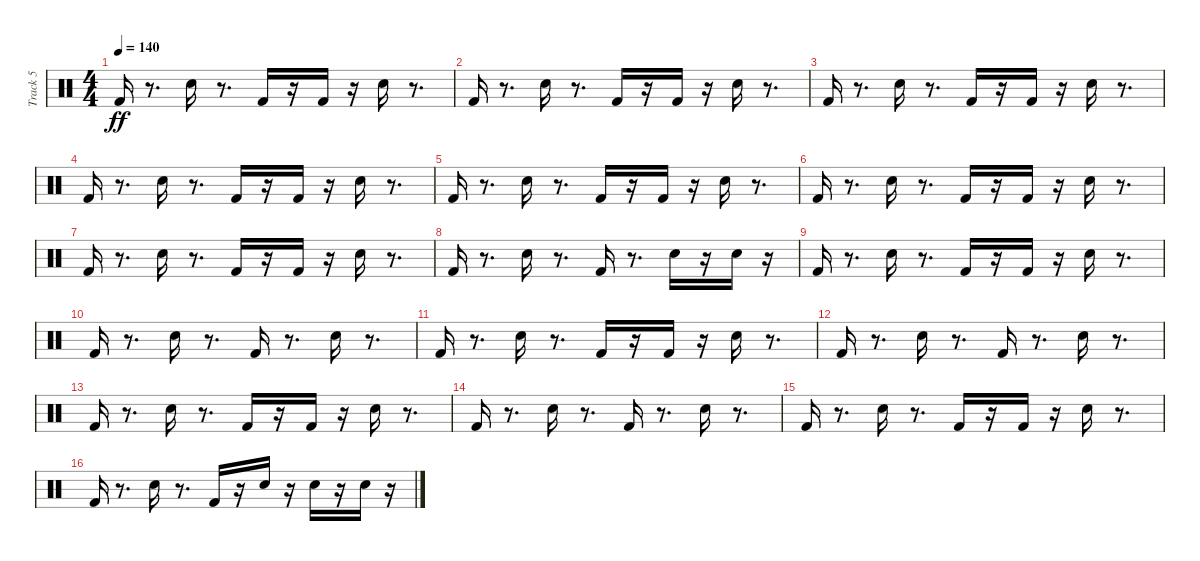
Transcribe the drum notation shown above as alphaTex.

\track ("Track 5" "Track 5") {instrument percussion}
\staff {score}
\articulation defaults
\ts (4 4)
\tempo 140
\clef neutral
\ks c "Kick (hit) 2".16{dy ff}
r.8{d} "Snare (hit) 2".16 r.8{d} "Kick (hit) 2".16 r.16 "Kick (hit) 2".16 r.16 "Snare (hit) 2".16 r.8{d} |
"Kick (hit) 2".16 r.8{d} "Snare (hit) 2".16 r.8{d} "Kick (hit) 2".16 r.16 "Kick (hit) 2".16 r.16 "Snare (hit) 2".16 r.8{d} |
"Kick (hit) 2".16 r.8{d} "Snare (hit) 2".16 r.8{d} "Kick (hit) 2".16 r.16 "Kick (hit) 2".16 r.16 "Snare (hit) 2".16 r.8{d} |
"Kick (hit) 2".16 r.8{d} "Snare (hit) 2".16 r.8{d} "Kick (hit) 2".16 r.16 "Kick (hit) 2".16 r.16 "Snare (hit) 2".16 r.8{d} |
"Kick (hit) 2".16 r.8{d} "Snare (hit) 2".16 r.8{d} "Kick (hit) 2".16 r.16 "Kick (hit) 2".16 r.16 "Snare (hit) 2".16 r.8{d} |
"Kick (hit) 2".16 r.8{d} "Snare (hit) 2".16 r.8{d} "Kick (hit) 2".16 r.16 "Kick (hit) 2".16 r.16 "Snare (hit) 2".16 r.8{d} |
"Kick (hit) 2".16 r.8{d} "Snare (hit) 2".16 r.8{d} "Kick (hit) 2".16 r.16 "Kick (hit) 2".16 r.16 "Snare (hit) 2".16 r.8{d} |
"Kick (hit) 2".16 r.8{d} "Snare (hit) 2".16 r.8{d} "Kick (hit) 2".16 r.8{d} "Snare (hit) 2".16 r.16 "Snare (hit) 2".16 r.16 |
"Kick (hit) 2".16 r.8{d} "Snare (hit) 2".16 r.8{d} "Kick (hit) 2".16 r.16 "Kick (hit) 2".16 r.16 "Snare (hit) 2".16 r.8{d} |
"Kick (hit) 2".16 r.8{d} "Snare (hit) 2".16 r.8{d} "Kick (hit) 2".16 r.8{d} "Snare (hit) 2".16 r.8{d} |
"Kick (hit) 2".16 r.8{d} "Snare (hit) 2".16 r.8{d} "Kick (hit) 2".16 r.16 "Kick (hit) 2".16 r.16 "Snare (hit) 2".16 r.8{d} |
"Kick (hit) 2".16 r.8{d} "Snare (hit) 2".16 r.8{d} "Kick (hit) 2".16 r.8{d} "Snare (hit) 2".16 r.8{d} |
"Kick (hit) 2".16 r.8{d} "Snare (hit) 2".16 r.8{d} "Kick (hit) 2".16 r.16 "Kick (hit) 2".16 r.16 "Snare (hit) 2".16 r.8{d} |
"Kick (hit) 2".16 r.8{d} "Snare (hit) 2".16 r.8{d} "Kick (hit) 2".16 r.8{d} "Snare (hit) 2".16 r.8{d} |
"Kick (hit) 2".16 r.8{d} "Snare (hit) 2".16 r.8{d} "Kick (hit) 2".16 r.16 "Kick (hit) 2".16 r.16 "Snare (hit) 2".16 r.8{d} |
"Kick (hit) 2".16 r.8{d} "Snare (hit) 2".16 r.8{d} "Kick (hit) 2".16 r.16 "Snare (hit) 2".16 r.16 "Snare (hit) 2".16 r.16 "Snare (hit) 2".16 r.16
